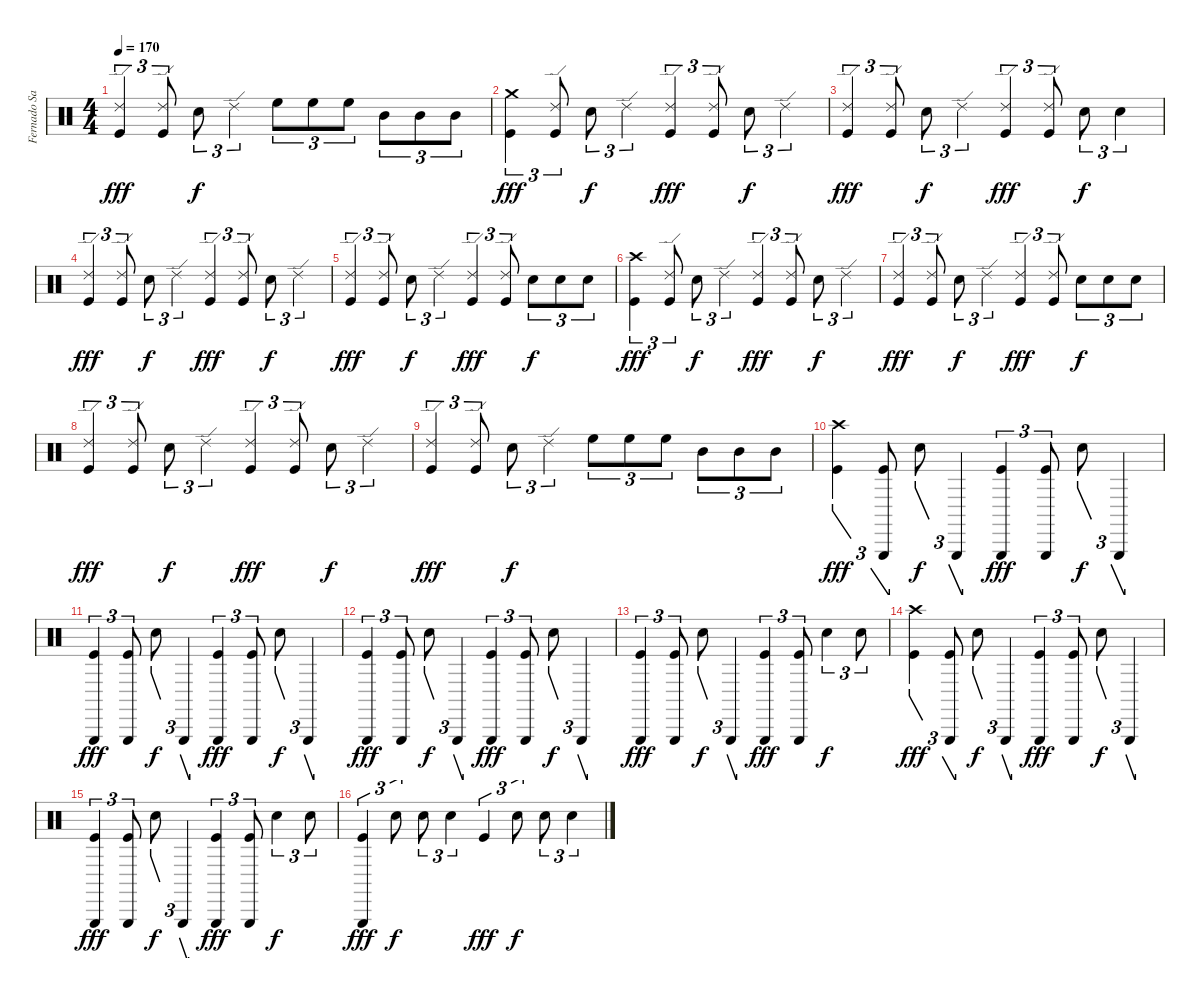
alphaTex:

\track ("Fernado Sanchez" "Fernado Sa") {instrument percussion}
\staff {score}
\articulation defaults
\ts (4 4)
\tempo 170
\clef neutral
\ks c
("Ride (edge) 2" "Kick (hit)").4{tu (3 2) dy fff} ("Ride (edge) 2" "Kick (hit)").8{tu (3 2)} "Electric Snare (hit)".8{tu (3 2) dy f} "Ride (edge) 2".4{tu (3 2)} "High Floor Tom (hit)".8{tu (3 2)} "High Floor Tom (hit)".8{tu (3 2)} "High Floor Tom (hit)".8{tu (3 2)} "Mid Tom (hit)".8{tu (3 2)} "Mid Tom (hit)".8{tu (3 2)} "Mid Tom (hit)".8{tu (3 2)} |
("Crash medium (hit)" "Kick (hit)").4{tu (3 2) dy fff} ("Ride (edge) 2" "Kick (hit)").8{tu (3 2)} "Electric Snare (hit)".8{tu (3 2) dy f} "Ride (edge) 2".4{tu (3 2)} ("Ride (edge) 2" "Kick (hit)").4{tu (3 2) dy fff} ("Ride (edge) 2" "Kick (hit)").8{tu (3 2)} "Electric Snare (hit)".8{tu (3 2) dy f} "Ride (edge) 2".4{tu (3 2)} |
("Ride (edge) 2" "Kick (hit)").4{tu (3 2) dy fff} ("Ride (edge) 2" "Kick (hit)").8{tu (3 2)} "Electric Snare (hit)".8{tu (3 2) dy f} "Ride (edge) 2".4{tu (3 2)} ("Ride (edge) 2" "Kick (hit)").4{tu (3 2) dy fff} ("Ride (edge) 2" "Kick (hit)").8{tu (3 2)} "Electric Snare (hit)".8{tu (3 2) dy f} "Electric Snare (hit)".4{tu (3 2)} |
("Ride (edge) 2" "Kick (hit)").4{tu (3 2) dy fff} ("Ride (edge) 2" "Kick (hit)").8{tu (3 2)} "Electric Snare (hit)".8{tu (3 2) dy f} "Ride (edge) 2".4{tu (3 2)} ("Ride (edge) 2" "Kick (hit)").4{tu (3 2) dy fff} ("Ride (edge) 2" "Kick (hit)").8{tu (3 2)} "Electric Snare (hit)".8{tu (3 2) dy f} "Ride (edge) 2".4{tu (3 2)} |
("Ride (edge) 2" "Kick (hit)").4{tu (3 2) dy fff} ("Ride (edge) 2" "Kick (hit)").8{tu (3 2)} "Electric Snare (hit)".8{tu (3 2) dy f} "Ride (edge) 2".4{tu (3 2)} ("Ride (edge) 2" "Kick (hit)").4{tu (3 2) dy fff} ("Ride (edge) 2" "Kick (hit)").8{tu (3 2)} "Electric Snare (hit)".8{tu (3 2) dy f} "Electric Snare (hit)".8{tu (3 2)} "Electric Snare (hit)".8{tu (3 2)} |
("Crash high (hit)" "Kick (hit)").4{tu (3 2) dy fff} ("Ride (edge) 2" "Kick (hit)").8{tu (3 2)} "Electric Snare (hit)".8{tu (3 2) dy f} "Ride (edge) 2".4{tu (3 2)} ("Ride (edge) 2" "Kick (hit)").4{tu (3 2) dy fff} ("Ride (edge) 2" "Kick (hit)").8{tu (3 2)} "Electric Snare (hit)".8{tu (3 2) dy f} "Ride (edge) 2".4{tu (3 2)} |
("Ride (edge) 2" "Kick (hit)").4{tu (3 2) dy fff} ("Ride (edge) 2" "Kick (hit)").8{tu (3 2)} "Electric Snare (hit)".8{tu (3 2) dy f} "Ride (edge) 2".4{tu (3 2)} ("Ride (edge) 2" "Kick (hit)").4{tu (3 2) dy fff} ("Ride (edge) 2" "Kick (hit)").8{tu (3 2)} "Electric Snare (hit)".8{tu (3 2) dy f} "Electric Snare (hit)".8{tu (3 2)} "Electric Snare (hit)".8{tu (3 2)} |
("Ride (edge) 2" "Kick (hit)").4{tu (3 2) dy fff} ("Ride (edge) 2" "Kick (hit)").8{tu (3 2)} "Electric Snare (hit)".8{tu (3 2) dy f} "Ride (edge) 2".4{tu (3 2)} ("Ride (edge) 2" "Kick (hit)").4{tu (3 2) dy fff} ("Ride (edge) 2" "Kick (hit)").8{tu (3 2)} "Electric Snare (hit)".8{tu (3 2) dy f} "Ride (edge) 2".4{tu (3 2)} |
("Ride (edge) 2" "Kick (hit)").4{tu (3 2) dy fff} ("Ride (edge) 2" "Kick (hit)").8{tu (3 2)} "Electric Snare (hit)".8{tu (3 2) dy f} "Ride (edge) 2".4{tu (3 2)} "High Floor Tom (hit)".8{tu (3 2)} "High Floor Tom (hit)".8{tu (3 2)} "High Floor Tom (hit)".8{tu (3 2)} "Mid Tom (hit)".8{tu (3 2)} "Mid Tom (hit)".8{tu (3 2)} "Mid Tom (hit)".8{tu (3 2)} |
("Crash high (hit)" "Kick (hit)").4{tu (3 2) dy fff} ("Triangle (hit)" "Kick (hit)").8{tu (3 2)} "Electric Snare (hit)".8{tu (3 2) dy f} "Triangle (hit)".4{tu (3 2)} ("Triangle (hit)" "Kick (hit)").4{tu (3 2) dy fff} ("Triangle (hit)" "Kick (hit)").8{tu (3 2)} "Electric Snare (hit)".8{tu (3 2) dy f} "Triangle (hit)".4{tu (3 2)} |
("Triangle (hit)" "Kick (hit)").4{tu (3 2) dy fff} ("Triangle (hit)" "Kick (hit)").8{tu (3 2)} "Electric Snare (hit)".8{tu (3 2) dy f} "Triangle (hit)".4{tu (3 2)} ("Triangle (hit)" "Kick (hit)").4{tu (3 2) dy fff} ("Triangle (hit)" "Kick (hit)").8{tu (3 2)} "Electric Snare (hit)".8{tu (3 2) dy f} "Triangle (hit)".4{tu (3 2)} |
("Triangle (hit)" "Kick (hit)").4{tu (3 2) dy fff} ("Triangle (hit)" "Kick (hit)").8{tu (3 2)} "Electric Snare (hit)".8{tu (3 2) dy f} "Triangle (hit)".4{tu (3 2)} ("Triangle (hit)" "Kick (hit)").4{tu (3 2) dy fff} ("Triangle (hit)" "Kick (hit)").8{tu (3 2)} "Electric Snare (hit)".8{tu (3 2) dy f} "Triangle (hit)".4{tu (3 2)} |
("Triangle (hit)" "Kick (hit)").4{tu (3 2) dy fff} ("Triangle (hit)" "Kick (hit)").8{tu (3 2)} "Electric Snare (hit)".8{tu (3 2) dy f} "Triangle (hit)".4{tu (3 2)} ("Triangle (hit)" "Kick (hit)").4{tu (3 2) dy fff} ("Triangle (hit)" "Kick (hit)").8{tu (3 2)} "Electric Snare (hit)".4{tu (3 2) dy f} "Electric Snare (hit)".8{tu (3 2)} |
("Crash high (hit)" "Kick (hit)").4{tu (3 2) dy fff} ("Triangle (hit)" "Kick (hit)").8{tu (3 2)} "Electric Snare (hit)".8{tu (3 2) dy f} "Triangle (hit)".4{tu (3 2)} ("Triangle (hit)" "Kick (hit)").4{tu (3 2) dy fff} ("Triangle (hit)" "Kick (hit)").8{tu (3 2)} "Electric Snare (hit)".8{tu (3 2) dy f} "Triangle (hit)".4{tu (3 2)} |
("Triangle (hit)" "Kick (hit)").4{tu (3 2) dy fff} ("Triangle (hit)" "Kick (hit)").8{tu (3 2)} "Electric Snare (hit)".8{tu (3 2) dy f} "Triangle (hit)".4{tu (3 2)} ("Triangle (hit)" "Kick (hit)").4{tu (3 2) dy fff} ("Triangle (hit)" "Kick (hit)").8{tu (3 2)} "Electric Snare (hit)".4{tu (3 2) dy f} "Electric Snare (hit)".8{tu (3 2)} |
("Triangle (hit)" "Kick (hit)").4{tu (3 2) dy fff} "Electric Snare (hit)".8{tu (3 2) dy f} "Electric Snare (hit)".8{tu (3 2)} "Electric Snare (hit)".4{tu (3 2)} "Kick (hit)".4{tu (3 2) dy fff} "Electric Snare (hit)".8{tu (3 2) dy f} "Electric Snare (hit)".8{tu (3 2)} "Electric Snare (hit)".4{tu (3 2)}
